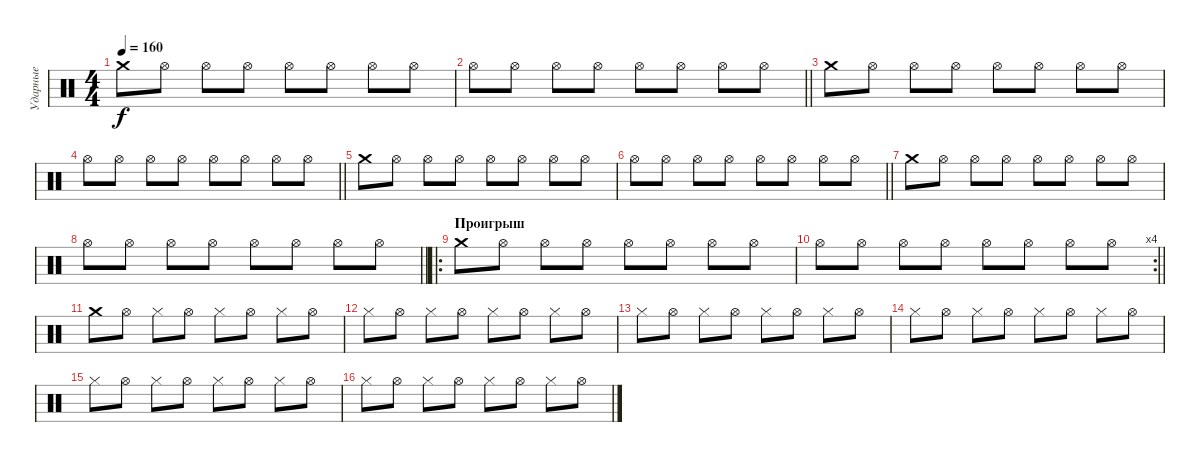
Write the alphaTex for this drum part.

\track ("Ударные" "Ударные") {instrument percussion}
\staff {score}
\articulation defaults
\ts (4 4)
\tempo 160
\clef neutral
\ks c "Crash medium (hit)".8{dy f} "Hi-Hat (open)".8 "Hi-Hat (open)".8 "Hi-Hat (open)".8 "Hi-Hat (open)".8 "Hi-Hat (open)".8 "Hi-Hat (open)".8 "Hi-Hat (open)".8
|
\barLineRight lightlight "Hi-Hat (open)".8 "Hi-Hat (open)".8 "Hi-Hat (open)".8 "Hi-Hat (open)".8 "Hi-Hat (open)".8 "Hi-Hat (open)".8 "Hi-Hat (open)".8 "Hi-Hat (open)".8
|
"Crash medium (hit)".8 "Hi-Hat (open)".8 "Hi-Hat (open)".8 "Hi-Hat (open)".8 "Hi-Hat (open)".8 "Hi-Hat (open)".8 "Hi-Hat (open)".8 "Hi-Hat (open)".8 |
\barLineRight lightlight "Hi-Hat (open)".8 "Hi-Hat (open)".8 "Hi-Hat (open)".8 "Hi-Hat (open)".8 "Hi-Hat (open)".8 "Hi-Hat (open)".8 "Hi-Hat (open)".8 "Hi-Hat (open)".8
|
"Crash medium (hit)".8 "Hi-Hat (open)".8 "Hi-Hat (open)".8 "Hi-Hat (open)".8 "Hi-Hat (open)".8 "Hi-Hat (open)".8 "Hi-Hat (open)".8 "Hi-Hat (open)".8 |
\barLineRight lightlight "Hi-Hat (open)".8 "Hi-Hat (open)".8 "Hi-Hat (open)".8 "Hi-Hat (open)".8 "Hi-Hat (open)".8 "Hi-Hat (open)".8 "Hi-Hat (open)".8 "Hi-Hat (open)".8
|
"Crash medium (hit)".8 "Hi-Hat (open)".8 "Hi-Hat (open)".8 "Hi-Hat (open)".8 "Hi-Hat (open)".8 "Hi-Hat (open)".8 "Hi-Hat (open)".8 "Hi-Hat (open)".8 |
\barLineRight lightlight "Hi-Hat (open)".8 "Hi-Hat (open)".8 "Hi-Hat (open)".8 "Hi-Hat (open)".8 "Hi-Hat (open)".8 "Hi-Hat (open)".8 "Hi-Hat (open)".8 "Hi-Hat (open)".8
|
\ro
\section ("" "Проигрыш")
"Crash medium (hit)".8 "Hi-Hat (open)".8 "Hi-Hat (open)".8 "Hi-Hat (open)".8 "Hi-Hat (open)".8 "Hi-Hat (open)".8 "Hi-Hat (open)".8 "Hi-Hat (open)".8 |
\rc 4
\barLineRight lightlight "Hi-Hat (open)".8 "Hi-Hat (open)".8 "Hi-Hat (open)".8 "Hi-Hat (open)".8 "Hi-Hat (open)".8 "Hi-Hat (open)".8 "Hi-Hat (open)".8 "Hi-Hat (open)".8
|
"Crash medium (hit)".8 "Hi-Hat (open)".8 "Hi-Hat (closed)".8 "Hi-Hat (open)".8 "Hi-Hat (closed)".8 "Hi-Hat (open)".8 "Hi-Hat (closed)".8 "Hi-Hat (open)".8 |
"Hi-Hat (closed)".8 "Hi-Hat (open)".8 "Hi-Hat (closed)".8 "Hi-Hat (open)".8 "Hi-Hat (closed)".8 "Hi-Hat (open)".8 "Hi-Hat (closed)".8 "Hi-Hat (open)".8 |
"Hi-Hat (closed)".8 "Hi-Hat (open)".8 "Hi-Hat (closed)".8 "Hi-Hat (open)".8 "Hi-Hat (closed)".8 "Hi-Hat (open)".8 "Hi-Hat (closed)".8 "Hi-Hat (open)".8 |
"Hi-Hat (closed)".8 "Hi-Hat (open)".8 "Hi-Hat (closed)".8 "Hi-Hat (open)".8 "Hi-Hat (closed)".8 "Hi-Hat (open)".8 "Hi-Hat (closed)".8 "Hi-Hat (open)".8 |
"Hi-Hat (closed)".8 "Hi-Hat (open)".8 "Hi-Hat (closed)".8 "Hi-Hat (open)".8 "Hi-Hat (closed)".8 "Hi-Hat (open)".8 "Hi-Hat (closed)".8 "Hi-Hat (open)".8 |
"Hi-Hat (closed)".8 "Hi-Hat (open)".8 "Hi-Hat (closed)".8 "Hi-Hat (open)".8 "Hi-Hat (closed)".8 "Hi-Hat (open)".8 "Hi-Hat (closed)".8 "Hi-Hat (open)".8
